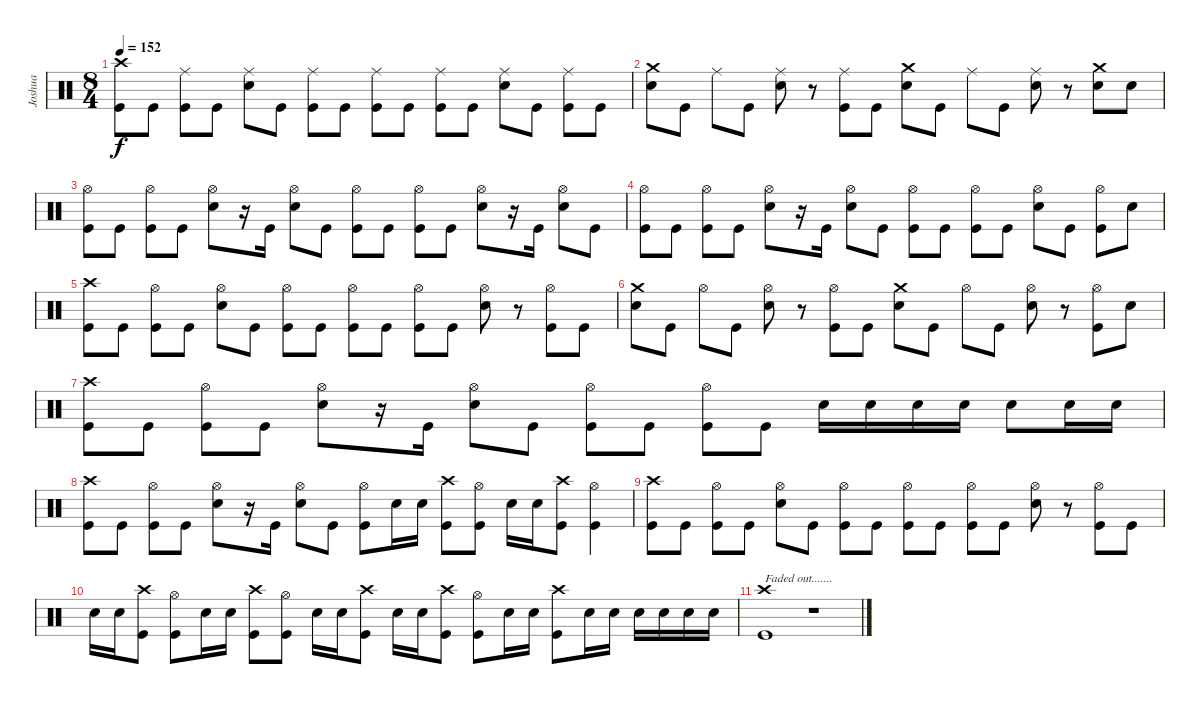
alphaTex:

\track ("Joshua" "Joshua") {instrument percussion}
\staff {score}
\articulation defaults
\ts (8 4)
\tempo 152
\clef neutral
\ks c
("Crash high (hit)" "Kick (hit)").8{dy f} "Kick (hit)".8 ("Ride (middle)" "Kick (hit)").8 "Kick (hit)".8 ("Ride (middle)" "Electric Snare (hit)").8 "Kick (hit)".8 ("Ride (middle)" "Kick (hit)").8 "Kick (hit)".8 ("Ride (middle)" "Kick (hit)").8 "Kick (hit)".8 ("Ride (middle)" "Kick (hit)").8 "Kick (hit)".8 ("Ride (middle)" "Electric Snare (hit)").8 "Kick (hit)".8 ("Ride (middle)" "Kick (hit)").8 "Kick (hit)".8 |
("Crash medium (hit)" "Electric Snare (hit)").8 "Kick (hit)".8 "Ride (middle)".8 "Kick (hit)".8 ("Ride (middle)" "Electric Snare (hit)").8 r.8 ("Ride (middle)" "Kick (hit)").8 "Kick (hit)".8 ("Crash medium (hit)" "Electric Snare (hit)").8 "Kick (hit)".8 "Ride (middle)".8 "Kick (hit)".8 ("Ride (middle)" "Electric Snare (hit)").8 r.8 ("Crash medium (hit)" "Electric Snare (hit)").8 "Electric Snare (hit)".8 |
("Hi-Hat (open)" "Kick (hit)").8 "Kick (hit)".8 ("Hi-Hat (open)" "Kick (hit)").8 "Kick (hit)".8 ("Hi-Hat (open)" "Electric Snare (hit)").8 r.16 "Kick (hit)".16 ("Hi-Hat (open)" "Electric Snare (hit)").8 "Kick (hit)".8 ("Hi-Hat (open)" "Kick (hit)").8 "Kick (hit)".8 ("Hi-Hat (open)" "Kick (hit)").8 "Kick (hit)".8 ("Hi-Hat (open)" "Electric Snare (hit)").8 r.16 "Kick (hit)".16 ("Hi-Hat (open)" "Electric Snare (hit)").8 "Kick (hit)".8 |
("Hi-Hat (open)" "Kick (hit)").8 "Kick (hit)".8 ("Hi-Hat (open)" "Kick (hit)").8 "Kick (hit)".8 ("Hi-Hat (open)" "Electric Snare (hit)").8 r.16 "Kick (hit)".16 ("Hi-Hat (open)" "Electric Snare (hit)").8 "Kick (hit)".8 ("Hi-Hat (open)" "Kick (hit)").8 "Kick (hit)".8 ("Hi-Hat (open)" "Kick (hit)").8 "Kick (hit)".8 ("Hi-Hat (open)" "Electric Snare (hit)").8 "Kick (hit)".8 ("Hi-Hat (open)" "Kick (hit)").8 "Electric Snare (hit)".8 |
("Crash high (hit)" "Kick (hit)").8 "Kick (hit)".8 ("Hi-Hat (open)" "Kick (hit)").8 "Kick (hit)".8 ("Hi-Hat (open)" "Electric Snare (hit)").8 "Kick (hit)".8 ("Hi-Hat (open)" "Kick (hit)").8 "Kick (hit)".8 ("Hi-Hat (open)" "Kick (hit)").8 "Kick (hit)".8 ("Hi-Hat (open)" "Kick (hit)").8 "Kick (hit)".8 ("Hi-Hat (open)" "Electric Snare (hit)").8 r.8 ("Hi-Hat (open)" "Kick (hit)").8 "Kick (hit)".8 |
("Crash medium (hit)" "Electric Snare (hit)").8 "Kick (hit)".8 "Hi-Hat (open)".8 "Kick (hit)".8 ("Hi-Hat (open)" "Electric Snare (hit)").8 r.8 ("Hi-Hat (open)" "Kick (hit)").8 "Kick (hit)".8 ("Crash medium (hit)" "Electric Snare (hit)").8 "Kick (hit)".8 "Hi-Hat (open)".8 "Kick (hit)".8 ("Hi-Hat (open)" "Electric Snare (hit)").8 r.8 ("Hi-Hat (open)" "Kick (hit)").8 "Electric Snare (hit)".8 |
("Crash high (hit)" "Kick (hit)").8 "Kick (hit)".8 ("Hi-Hat (open)" "Kick (hit)").8 "Kick (hit)".8 ("Hi-Hat (open)" "Electric Snare (hit)").8 r.16 "Kick (hit)".16 ("Hi-Hat (open)" "Electric Snare (hit)").8 "Kick (hit)".8 ("Hi-Hat (open)" "Kick (hit)").8 "Kick (hit)".8 ("Hi-Hat (open)" "Kick (hit)").8 "Kick (hit)".8 "Electric Snare (hit)".16 "Electric Snare (hit)".16 "Electric Snare (hit)".16 "Electric Snare (hit)".16 "Electric Snare (hit)".8 "Electric Snare (hit)".16 "Electric Snare (hit)".16 |
("Crash high (hit)" "Kick (hit)").8 "Kick (hit)".8 ("Hi-Hat (open)" "Kick (hit)").8 "Kick (hit)".8 ("Hi-Hat (open)" "Electric Snare (hit)").8 r.16 "Kick (hit)".16 ("Hi-Hat (open)" "Electric Snare (hit)").8 "Kick (hit)".8 ("Hi-Hat (open)" "Kick (hit)").8 "Electric Snare (hit)".16 "Electric Snare (hit)".16 ("Crash high (hit)" "Kick (hit)").8 ("Hi-Hat (open)" "Kick (hit)").8 "Electric Snare (hit)".16 "Electric Snare (hit)".16 ("Crash high (hit)" "Kick (hit)").8 ("Hi-Hat (open)" "Kick (hit)").4 |
("Crash high (hit)" "Kick (hit)").8 "Kick (hit)".8 ("Hi-Hat (open)" "Kick (hit)").8 "Kick (hit)".8 ("Hi-Hat (open)" "Electric Snare (hit)").8 "Kick (hit)".8 ("Hi-Hat (open)" "Kick (hit)").8 "Kick (hit)".8 ("Hi-Hat (open)" "Kick (hit)").8 "Kick (hit)".8 ("Hi-Hat (open)" "Kick (hit)").8 "Kick (hit)".8 ("Hi-Hat (open)" "Electric Snare (hit)").8 r.8 ("Hi-Hat (open)" "Kick (hit)").8 "Kick (hit)".8 |
"Electric Snare (hit)".16 "Electric Snare (hit)".16 ("Crash high (hit)" "Kick (hit)").8 ("Hi-Hat (open)" "Kick (hit)").8 "Electric Snare (hit)".16 "Electric Snare (hit)".16 ("Crash high (hit)" "Kick (hit)").8 ("Hi-Hat (open)" "Kick (hit)").8 "Electric Snare (hit)".16 "Electric Snare (hit)".16 ("Crash high (hit)" "Kick (hit)").8 "Electric Snare (hit)".16 "Electric Snare (hit)".16 ("Crash high (hit)" "Kick (hit)").8 ("Hi-Hat (open)" "Kick (hit)").8 "Electric Snare (hit)".16 "Electric Snare (hit)".16 ("Crash high (hit)" "Kick (hit)").8 "Electric Snare (hit)".16 "Electric Snare (hit)".16 "Electric Snare (hit)".16 "Electric Snare (hit)".16 "Electric Snare (hit)".16 "Electric Snare (hit)".16 |
("Crash high (hit)" "Kick (hit)").1{txt "Faded out......."} r.1
